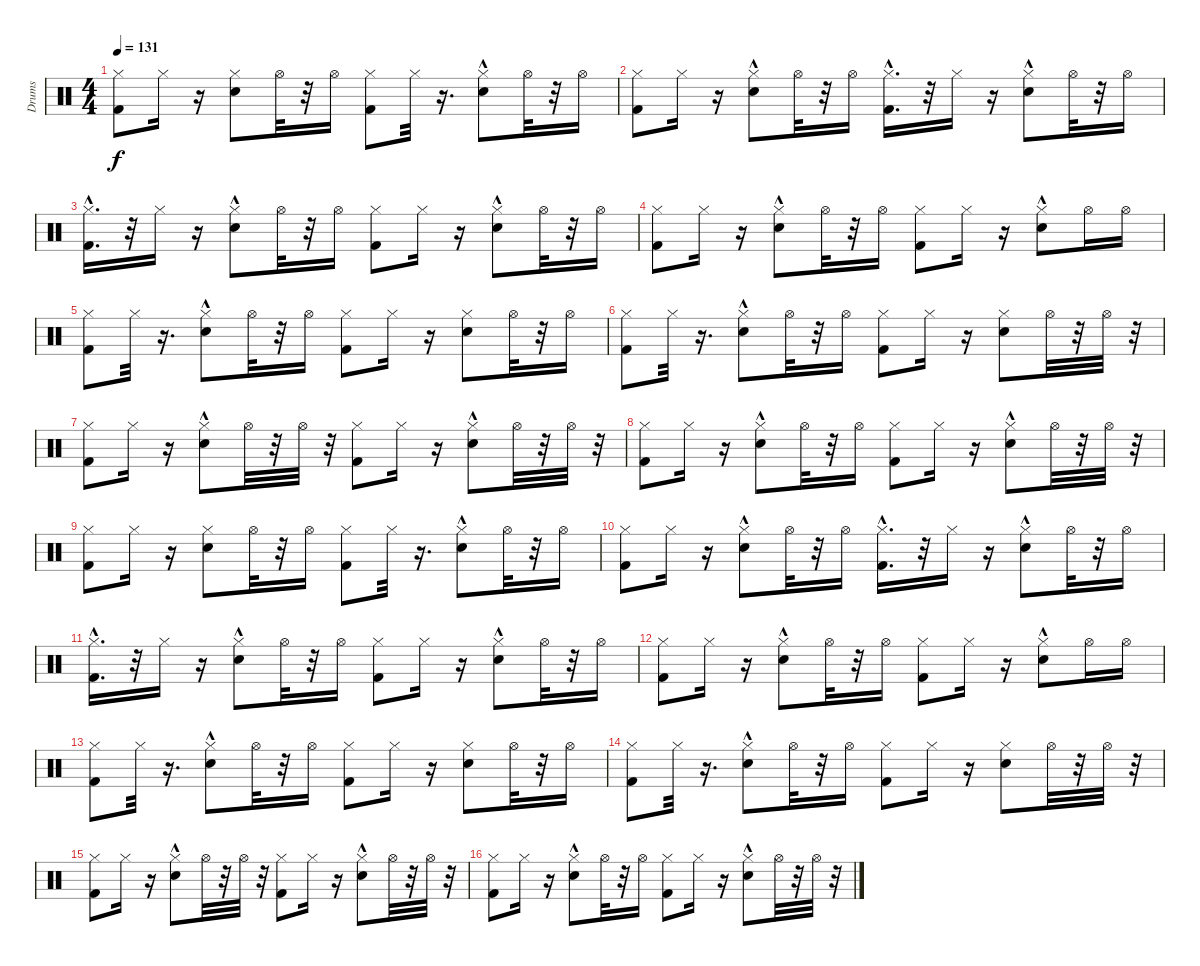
\track ("Drums" "Drums") {instrument percussion}
\staff {score}
\articulation defaults
\ts (4 4)
\tempo 131
\clef neutral
\ks c
("Kick (hit) 2" "Hi-Hat (closed)").8{dy f} "Hi-Hat (closed)".16 r.16 ("Snare (hit) 2" "Hi-Hat (closed)").8 "Hi-Hat (open)".32 r.32 "Hi-Hat (open)".16 ("Kick (hit) 2" "Hi-Hat (closed)").8 "Hi-Hat (closed)".32 r.16{d} ("Snare (hit) 2" "Hi-Hat (closed)"{hac}).8 "Hi-Hat (open)".32 r.32 "Hi-Hat (open)".16 |
("Kick (hit) 2" "Hi-Hat (closed)").8 "Hi-Hat (closed)".16 r.16 ("Snare (hit) 2" "Hi-Hat (closed)"{hac}).8 "Hi-Hat (open)".32 r.32 "Hi-Hat (open)".16 ("Kick (hit) 2"{hac} "Hi-Hat (closed)").16{d} r.32 "Hi-Hat (closed)".16 r.16 ("Snare (hit) 2" "Hi-Hat (closed)"{hac}).8 "Hi-Hat (open)".32 r.32 "Hi-Hat (open)".16 |
("Kick (hit) 2"{hac} "Hi-Hat (closed)").16{d} r.32 "Hi-Hat (closed)".16 r.16 ("Snare (hit) 2" "Hi-Hat (closed)"{hac}).8 "Hi-Hat (open)".32 r.32 "Hi-Hat (open)".16 ("Kick (hit) 2" "Hi-Hat (closed)").8 "Hi-Hat (closed)".16 r.16 ("Snare (hit) 2" "Hi-Hat (closed)"{hac}).8 "Hi-Hat (open)".32 r.32 "Hi-Hat (open)".16 |
("Kick (hit) 2" "Hi-Hat (closed)").8 "Hi-Hat (closed)".16 r.16 ("Snare (hit) 2" "Hi-Hat (closed)"{hac}).8 "Hi-Hat (open)".32 r.32 "Hi-Hat (open)".16 ("Kick (hit) 2" "Hi-Hat (closed)").8 "Hi-Hat (closed)".16 r.16 ("Snare (hit) 2" "Hi-Hat (closed)"{hac}).8 "Hi-Hat (open)".16 "Hi-Hat (open)".16 |
("Kick (hit) 2" "Hi-Hat (closed)").8 "Hi-Hat (closed)".32 r.16{d} ("Snare (hit) 2" "Hi-Hat (closed)"{hac}).8 "Hi-Hat (open)".32 r.32 "Hi-Hat (open)".16 ("Kick (hit) 2" "Hi-Hat (closed)").8 "Hi-Hat (closed)".16 r.16 ("Snare (hit) 2" "Hi-Hat (closed)").8 "Hi-Hat (open)".32 r.32 "Hi-Hat (open)".16 |
("Kick (hit) 2" "Hi-Hat (closed)").8 "Hi-Hat (closed)".32 r.16{d} ("Snare (hit) 2" "Hi-Hat (closed)"{hac}).8 "Hi-Hat (open)".32 r.32 "Hi-Hat (open)".16 ("Kick (hit) 2" "Hi-Hat (closed)").8 "Hi-Hat (closed)".16 r.16 ("Snare (hit) 2" "Hi-Hat (closed)").8 "Hi-Hat (open)".32 r.32 "Hi-Hat (open)".32 r.32 |
("Kick (hit) 2" "Hi-Hat (closed)").8 "Hi-Hat (closed)".16 r.16 ("Snare (hit) 2" "Hi-Hat (closed)"{hac}).8 "Hi-Hat (open)".32 r.32 "Hi-Hat (open)".32 r.32 ("Kick (hit) 2" "Hi-Hat (closed)").8 "Hi-Hat (closed)".16 r.16 ("Snare (hit) 2" "Hi-Hat (closed)"{hac}).8 "Hi-Hat (open)".32 r.32 "Hi-Hat (open)".32 r.32 |
("Kick (hit) 2" "Hi-Hat (closed)").8 "Hi-Hat (closed)".16 r.16 ("Snare (hit) 2" "Hi-Hat (closed)"{hac}).8 "Hi-Hat (open)".32 r.32 "Hi-Hat (open)".16 ("Kick (hit) 2" "Hi-Hat (closed)").8 "Hi-Hat (closed)".16 r.16 ("Snare (hit) 2" "Hi-Hat (closed)"{hac}).8 "Hi-Hat (open)".32 r.32 "Hi-Hat (open)".32 r.32 |
("Kick (hit) 2" "Hi-Hat (closed)").8 "Hi-Hat (closed)".16 r.16 ("Snare (hit) 2" "Hi-Hat (closed)").8 "Hi-Hat (open)".32 r.32 "Hi-Hat (open)".16 ("Kick (hit) 2" "Hi-Hat (closed)").8 "Hi-Hat (closed)".32 r.16{d} ("Snare (hit) 2" "Hi-Hat (closed)"{hac}).8 "Hi-Hat (open)".32 r.32 "Hi-Hat (open)".16 |
("Kick (hit) 2" "Hi-Hat (closed)").8 "Hi-Hat (closed)".16 r.16 ("Snare (hit) 2" "Hi-Hat (closed)"{hac}).8 "Hi-Hat (open)".32 r.32 "Hi-Hat (open)".16 ("Kick (hit) 2"{hac} "Hi-Hat (closed)").16{d} r.32 "Hi-Hat (closed)".16 r.16 ("Snare (hit) 2" "Hi-Hat (closed)"{hac}).8 "Hi-Hat (open)".32 r.32 "Hi-Hat (open)".16 |
("Kick (hit) 2"{hac} "Hi-Hat (closed)").16{d} r.32 "Hi-Hat (closed)".16 r.16 ("Snare (hit) 2" "Hi-Hat (closed)"{hac}).8 "Hi-Hat (open)".32 r.32 "Hi-Hat (open)".16 ("Kick (hit) 2" "Hi-Hat (closed)").8 "Hi-Hat (closed)".16 r.16 ("Snare (hit) 2" "Hi-Hat (closed)"{hac}).8 "Hi-Hat (open)".32 r.32 "Hi-Hat (open)".16 |
("Kick (hit) 2" "Hi-Hat (closed)").8 "Hi-Hat (closed)".16 r.16 ("Snare (hit) 2" "Hi-Hat (closed)"{hac}).8 "Hi-Hat (open)".32 r.32 "Hi-Hat (open)".16 ("Kick (hit) 2" "Hi-Hat (closed)").8 "Hi-Hat (closed)".16 r.16 ("Snare (hit) 2" "Hi-Hat (closed)"{hac}).8 "Hi-Hat (open)".16 "Hi-Hat (open)".16 |
("Kick (hit) 2" "Hi-Hat (closed)").8 "Hi-Hat (closed)".32 r.16{d} ("Snare (hit) 2" "Hi-Hat (closed)"{hac}).8 "Hi-Hat (open)".32 r.32 "Hi-Hat (open)".16 ("Kick (hit) 2" "Hi-Hat (closed)").8 "Hi-Hat (closed)".16 r.16 ("Snare (hit) 2" "Hi-Hat (closed)").8 "Hi-Hat (open)".32 r.32 "Hi-Hat (open)".16 |
("Kick (hit) 2" "Hi-Hat (closed)").8 "Hi-Hat (closed)".32 r.16{d} ("Snare (hit) 2" "Hi-Hat (closed)"{hac}).8 "Hi-Hat (open)".32 r.32 "Hi-Hat (open)".16 ("Kick (hit) 2" "Hi-Hat (closed)").8 "Hi-Hat (closed)".16 r.16 ("Snare (hit) 2" "Hi-Hat (closed)").8 "Hi-Hat (open)".32 r.32 "Hi-Hat (open)".32 r.32 |
("Kick (hit) 2" "Hi-Hat (closed)").8 "Hi-Hat (closed)".16 r.16 ("Snare (hit) 2" "Hi-Hat (closed)"{hac}).8 "Hi-Hat (open)".32 r.32 "Hi-Hat (open)".32 r.32 ("Kick (hit) 2" "Hi-Hat (closed)").8 "Hi-Hat (closed)".16 r.16 ("Snare (hit) 2" "Hi-Hat (closed)"{hac}).8 "Hi-Hat (open)".32 r.32 "Hi-Hat (open)".32 r.32 |
("Kick (hit) 2" "Hi-Hat (closed)").8 "Hi-Hat (closed)".16 r.16 ("Snare (hit) 2" "Hi-Hat (closed)"{hac}).8 "Hi-Hat (open)".32 r.32 "Hi-Hat (open)".16 ("Kick (hit) 2" "Hi-Hat (closed)").8 "Hi-Hat (closed)".16 r.16 ("Snare (hit) 2" "Hi-Hat (closed)"{hac}).8 "Hi-Hat (open)".32 r.32 "Hi-Hat (open)".32 r.32
